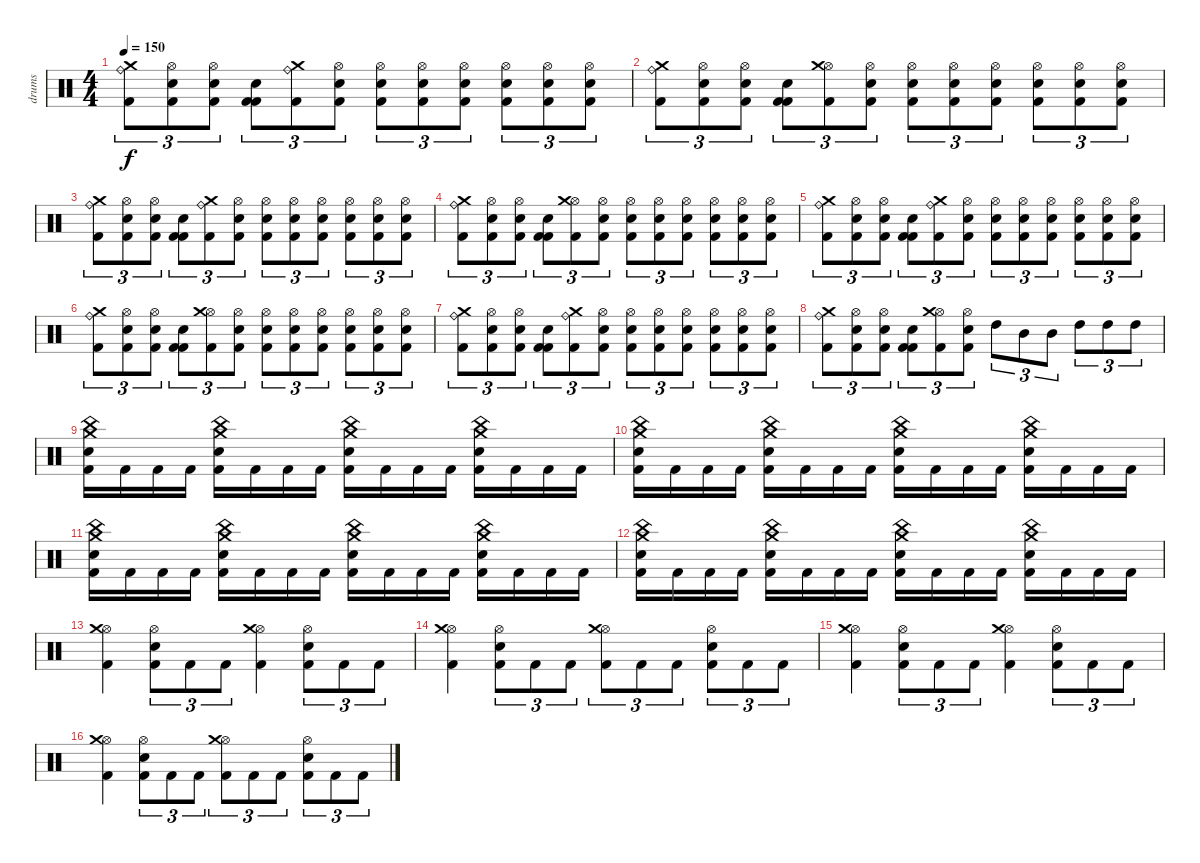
\track ("drums" "drums") {instrument percussion}
\staff {score}
\articulation defaults
\ts (4 4)
\tempo 150
\clef neutral
\ks c
("Ride (bell)" "Crash medium (hit)" "Kick (hit) 2").8{tu (3 2) dy f} ("Snare (hit) 2" "Hi-Hat (open)" "Kick (hit) 2").8{tu (3 2)} ("Snare (hit) 2" "Hi-Hat (open)" "Kick (hit) 2").8{tu (3 2)} ("Snare (hit) 2" "Kick (hit) 2" "Kick (hit) 2").8{tu (3 2)} ("Ride (bell)" "Crash medium (hit)" "Kick (hit) 2").8{tu (3 2)} ("Snare (hit) 2" "Hi-Hat (open)" "Kick (hit) 2").8{tu (3 2)} ("Snare (hit) 2" "Hi-Hat (open)" "Kick (hit) 2").8{tu (3 2)} ("Snare (hit) 2" "Hi-Hat (open)" "Kick (hit) 2").8{tu (3 2)} ("Snare (hit) 2" "Hi-Hat (open)" "Kick (hit) 2").8{tu (3 2)} ("Snare (hit) 2" "Hi-Hat (open)" "Kick (hit) 2").8{tu (3 2)} ("Snare (hit) 2" "Hi-Hat (open)" "Kick (hit) 2").8{tu (3 2)} ("Snare (hit) 2" "Hi-Hat (open)" "Kick (hit) 2").8{tu (3 2)} |
("Ride (bell)" "Crash medium (hit)" "Kick (hit) 2").8{tu (3 2)} ("Snare (hit) 2" "Hi-Hat (open)" "Kick (hit) 2").8{tu (3 2)} ("Snare (hit) 2" "Hi-Hat (open)" "Kick (hit) 2").8{tu (3 2)} ("Snare (hit) 2" "Kick (hit) 2" "Kick (hit) 2").8{tu (3 2)} ("Hi-Hat (open)" "Crash medium (hit)" "Kick (hit) 2").8{tu (3 2)} ("Snare (hit) 2" "Hi-Hat (open)" "Kick (hit) 2").8{tu (3 2)} ("Snare (hit) 2" "Hi-Hat (open)" "Kick (hit) 2").8{tu (3 2)} ("Snare (hit) 2" "Hi-Hat (open)" "Kick (hit) 2").8{tu (3 2)} ("Snare (hit) 2" "Hi-Hat (open)" "Kick (hit) 2").8{tu (3 2)} ("Snare (hit) 2" "Hi-Hat (open)" "Kick (hit) 2").8{tu (3 2)} ("Snare (hit) 2" "Hi-Hat (open)" "Kick (hit) 2").8{tu (3 2)} ("Snare (hit) 2" "Hi-Hat (open)" "Kick (hit) 2").8{tu (3 2)} |
("Ride (bell)" "Crash medium (hit)" "Kick (hit) 2").8{tu (3 2)} ("Snare (hit) 2" "Hi-Hat (open)" "Kick (hit) 2").8{tu (3 2)} ("Snare (hit) 2" "Hi-Hat (open)" "Kick (hit) 2").8{tu (3 2)} ("Snare (hit) 2" "Kick (hit) 2" "Kick (hit) 2").8{tu (3 2)} ("Ride (bell)" "Crash medium (hit)" "Kick (hit) 2").8{tu (3 2)} ("Snare (hit) 2" "Hi-Hat (open)" "Kick (hit) 2").8{tu (3 2)} ("Snare (hit) 2" "Hi-Hat (open)" "Kick (hit) 2").8{tu (3 2)} ("Snare (hit) 2" "Hi-Hat (open)" "Kick (hit) 2").8{tu (3 2)} ("Snare (hit) 2" "Hi-Hat (open)" "Kick (hit) 2").8{tu (3 2)} ("Snare (hit) 2" "Hi-Hat (open)" "Kick (hit) 2").8{tu (3 2)} ("Snare (hit) 2" "Hi-Hat (open)" "Kick (hit) 2").8{tu (3 2)} ("Snare (hit) 2" "Hi-Hat (open)" "Kick (hit) 2").8{tu (3 2)} |
("Ride (bell)" "Crash medium (hit)" "Kick (hit) 2").8{tu (3 2)} ("Snare (hit) 2" "Hi-Hat (open)" "Kick (hit) 2").8{tu (3 2)} ("Snare (hit) 2" "Hi-Hat (open)" "Kick (hit) 2").8{tu (3 2)} ("Snare (hit) 2" "Kick (hit) 2" "Kick (hit) 2").8{tu (3 2)} ("Hi-Hat (open)" "Crash medium (hit)" "Kick (hit) 2").8{tu (3 2)} ("Snare (hit) 2" "Hi-Hat (open)" "Kick (hit) 2").8{tu (3 2)} ("Snare (hit) 2" "Hi-Hat (open)" "Kick (hit) 2").8{tu (3 2)} ("Snare (hit) 2" "Hi-Hat (open)" "Kick (hit) 2").8{tu (3 2)} ("Snare (hit) 2" "Hi-Hat (open)" "Kick (hit) 2").8{tu (3 2)} ("Snare (hit) 2" "Hi-Hat (open)" "Kick (hit) 2").8{tu (3 2)} ("Snare (hit) 2" "Hi-Hat (open)" "Kick (hit) 2").8{tu (3 2)} ("Snare (hit) 2" "Hi-Hat (open)" "Kick (hit) 2").8{tu (3 2)} |
("Ride (bell)" "Crash medium (hit)" "Kick (hit) 2").8{tu (3 2)} ("Snare (hit) 2" "Hi-Hat (open)" "Kick (hit) 2").8{tu (3 2)} ("Snare (hit) 2" "Hi-Hat (open)" "Kick (hit) 2").8{tu (3 2)} ("Snare (hit) 2" "Kick (hit) 2" "Kick (hit) 2").8{tu (3 2)} ("Ride (bell)" "Crash medium (hit)" "Kick (hit) 2").8{tu (3 2)} ("Snare (hit) 2" "Hi-Hat (open)" "Kick (hit) 2").8{tu (3 2)} ("Snare (hit) 2" "Hi-Hat (open)" "Kick (hit) 2").8{tu (3 2)} ("Snare (hit) 2" "Hi-Hat (open)" "Kick (hit) 2").8{tu (3 2)} ("Snare (hit) 2" "Hi-Hat (open)" "Kick (hit) 2").8{tu (3 2)} ("Snare (hit) 2" "Hi-Hat (open)" "Kick (hit) 2").8{tu (3 2)} ("Snare (hit) 2" "Hi-Hat (open)" "Kick (hit) 2").8{tu (3 2)} ("Snare (hit) 2" "Hi-Hat (open)" "Kick (hit) 2").8{tu (3 2)} |
("Ride (bell)" "Crash medium (hit)" "Kick (hit) 2").8{tu (3 2)} ("Snare (hit) 2" "Hi-Hat (open)" "Kick (hit) 2").8{tu (3 2)} ("Snare (hit) 2" "Hi-Hat (open)" "Kick (hit) 2").8{tu (3 2)} ("Snare (hit) 2" "Kick (hit) 2" "Kick (hit) 2").8{tu (3 2)} ("Hi-Hat (open)" "Crash medium (hit)" "Kick (hit) 2").8{tu (3 2)} ("Snare (hit) 2" "Hi-Hat (open)" "Kick (hit) 2").8{tu (3 2)} ("Snare (hit) 2" "Hi-Hat (open)" "Kick (hit) 2").8{tu (3 2)} ("Snare (hit) 2" "Hi-Hat (open)" "Kick (hit) 2").8{tu (3 2)} ("Snare (hit) 2" "Hi-Hat (open)" "Kick (hit) 2").8{tu (3 2)} ("Snare (hit) 2" "Hi-Hat (open)" "Kick (hit) 2").8{tu (3 2)} ("Snare (hit) 2" "Hi-Hat (open)" "Kick (hit) 2").8{tu (3 2)} ("Snare (hit) 2" "Hi-Hat (open)" "Kick (hit) 2").8{tu (3 2)} |
("Ride (bell)" "Crash medium (hit)" "Kick (hit) 2").8{tu (3 2)} ("Snare (hit) 2" "Hi-Hat (open)" "Kick (hit) 2").8{tu (3 2)} ("Snare (hit) 2" "Hi-Hat (open)" "Kick (hit) 2").8{tu (3 2)} ("Snare (hit) 2" "Kick (hit) 2" "Kick (hit) 2").8{tu (3 2)} ("Ride (bell)" "Crash medium (hit)" "Kick (hit) 2").8{tu (3 2)} ("Snare (hit) 2" "Hi-Hat (open)" "Kick (hit) 2").8{tu (3 2)} ("Snare (hit) 2" "Hi-Hat (open)" "Kick (hit) 2").8{tu (3 2)} ("Snare (hit) 2" "Hi-Hat (open)" "Kick (hit) 2").8{tu (3 2)} ("Snare (hit) 2" "Hi-Hat (open)" "Kick (hit) 2").8{tu (3 2)} ("Snare (hit) 2" "Hi-Hat (open)" "Kick (hit) 2").8{tu (3 2)} ("Snare (hit) 2" "Hi-Hat (open)" "Kick (hit) 2").8{tu (3 2)} ("Snare (hit) 2" "Hi-Hat (open)" "Kick (hit) 2").8{tu (3 2)} |
("Ride (bell)" "Crash medium (hit)" "Kick (hit) 2").8{tu (3 2)} ("Snare (hit) 2" "Hi-Hat (open)" "Kick (hit) 2").8{tu (3 2)} ("Snare (hit) 2" "Hi-Hat (open)" "Kick (hit) 2").8{tu (3 2)} ("Snare (hit) 2" "Kick (hit) 2" "Kick (hit) 2").8{tu (3 2)} ("Hi-Hat (open)" "Crash medium (hit)" "Kick (hit) 2").8{tu (3 2)} ("Snare (hit) 2" "Hi-Hat (open)" "Kick (hit) 2").8{tu (3 2)} "High Tom (hit)".8{tu (3 2)} "Mid Tom (hit)".8{tu (3 2)} "Mid Tom (hit)".8{tu (3 2)} "High Tom (hit)".8{tu (3 2)} "High Tom (hit)".8{tu (3 2)} "High Tom (hit)".8{tu (3 2)} |
("China (hit)" "Crash medium (hit)" "Snare (hit) 2" "Kick (hit) 2").16 "Kick (hit) 2".16 "Kick (hit) 2".16 "Kick (hit) 2".16 ("China (hit)" "Crash medium (hit)" "Snare (hit) 2" "Kick (hit) 2").16 "Kick (hit) 2".16 "Kick (hit) 2".16 "Kick (hit) 2".16 ("China (hit)" "Crash medium (hit)" "Snare (hit) 2" "Kick (hit) 2").16 "Kick (hit) 2".16 "Kick (hit) 2".16 "Kick (hit) 2".16 ("China (hit)" "Crash medium (hit)" "Snare (hit) 2" "Kick (hit) 2").16 "Kick (hit) 2".16 "Kick (hit) 2".16 "Kick (hit) 2".16 |
("China (hit)" "Crash medium (hit)" "Snare (hit) 2" "Kick (hit) 2").16 "Kick (hit) 2".16 "Kick (hit) 2".16 "Kick (hit) 2".16 ("China (hit)" "Crash medium (hit)" "Snare (hit) 2" "Kick (hit) 2").16 "Kick (hit) 2".16 "Kick (hit) 2".16 "Kick (hit) 2".16 ("China (hit)" "Crash medium (hit)" "Snare (hit) 2" "Kick (hit) 2").16 "Kick (hit) 2".16 "Kick (hit) 2".16 "Kick (hit) 2".16 ("China (hit)" "Crash medium (hit)" "Snare (hit) 2" "Kick (hit) 2").16 "Kick (hit) 2".16 "Kick (hit) 2".16 "Kick (hit) 2".16 |
("China (hit)" "Crash medium (hit)" "Snare (hit) 2" "Kick (hit) 2").16 "Kick (hit) 2".16 "Kick (hit) 2".16 "Kick (hit) 2".16 ("China (hit)" "Crash medium (hit)" "Snare (hit) 2" "Kick (hit) 2").16 "Kick (hit) 2".16 "Kick (hit) 2".16 "Kick (hit) 2".16 ("China (hit)" "Crash medium (hit)" "Snare (hit) 2" "Kick (hit) 2").16 "Kick (hit) 2".16 "Kick (hit) 2".16 "Kick (hit) 2".16 ("China (hit)" "Crash medium (hit)" "Snare (hit) 2" "Kick (hit) 2").16 "Kick (hit) 2".16 "Kick (hit) 2".16 "Kick (hit) 2".16 |
("China (hit)" "Crash medium (hit)" "Snare (hit) 2" "Kick (hit) 2").16 "Kick (hit) 2".16 "Kick (hit) 2".16 "Kick (hit) 2".16 ("China (hit)" "Crash medium (hit)" "Snare (hit) 2" "Kick (hit) 2").16 "Kick (hit) 2".16 "Kick (hit) 2".16 "Kick (hit) 2".16 ("China (hit)" "Crash medium (hit)" "Snare (hit) 2" "Kick (hit) 2").16 "Kick (hit) 2".16 "Kick (hit) 2".16 "Kick (hit) 2".16 ("China (hit)" "Crash medium (hit)" "Snare (hit) 2" "Kick (hit) 2").16 "Kick (hit) 2".16 "Kick (hit) 2".16 "Kick (hit) 2".16 |
("Hi-Hat (open)" "Crash medium (hit)" "Kick (hit) 2").4 ("Snare (hit) 2" "Hi-Hat (open)" "Kick (hit) 2").8{tu (3 2)} "Kick (hit) 2".8{tu (3 2)} "Kick (hit) 2".8{tu (3 2)} ("Hi-Hat (open)" "Crash medium (hit)" "Kick (hit) 2").4 ("Snare (hit) 2" "Hi-Hat (open)" "Kick (hit) 2").8{tu (3 2)} "Kick (hit) 2".8{tu (3 2)} "Kick (hit) 2".8{tu (3 2)} |
("Hi-Hat (open)" "Crash medium (hit)" "Kick (hit) 2").4 ("Snare (hit) 2" "Hi-Hat (open)" "Kick (hit) 2").8{tu (3 2)} "Kick (hit) 2".8{tu (3 2)} "Kick (hit) 2".8{tu (3 2)} ("Hi-Hat (open)" "Crash medium (hit)" "Kick (hit) 2").8{tu (3 2)} "Kick (hit) 2".8{tu (3 2)} "Kick (hit) 2".8{tu (3 2)} ("Snare (hit) 2" "Hi-Hat (open)" "Kick (hit) 2").8{tu (3 2)} "Kick (hit) 2".8{tu (3 2)} "Kick (hit) 2".8{tu (3 2)} |
("Hi-Hat (open)" "Crash medium (hit)" "Kick (hit) 2").4 ("Snare (hit) 2" "Hi-Hat (open)" "Kick (hit) 2").8{tu (3 2)} "Kick (hit) 2".8{tu (3 2)} "Kick (hit) 2".8{tu (3 2)} ("Hi-Hat (open)" "Crash medium (hit)" "Kick (hit) 2").4 ("Snare (hit) 2" "Hi-Hat (open)" "Kick (hit) 2").8{tu (3 2)} "Kick (hit) 2".8{tu (3 2)} "Kick (hit) 2".8{tu (3 2)} |
("Hi-Hat (open)" "Crash medium (hit)" "Kick (hit) 2").4 ("Snare (hit) 2" "Hi-Hat (open)" "Kick (hit) 2").8{tu (3 2)} "Kick (hit) 2".8{tu (3 2)} "Kick (hit) 2".8{tu (3 2)} ("Hi-Hat (open)" "Crash medium (hit)" "Kick (hit) 2").8{tu (3 2)} "Kick (hit) 2".8{tu (3 2)} "Kick (hit) 2".8{tu (3 2)} ("Snare (hit) 2" "Hi-Hat (open)" "Kick (hit) 2").8{tu (3 2)} "Kick (hit) 2".8{tu (3 2)} "Kick (hit) 2".8{tu (3 2)}
